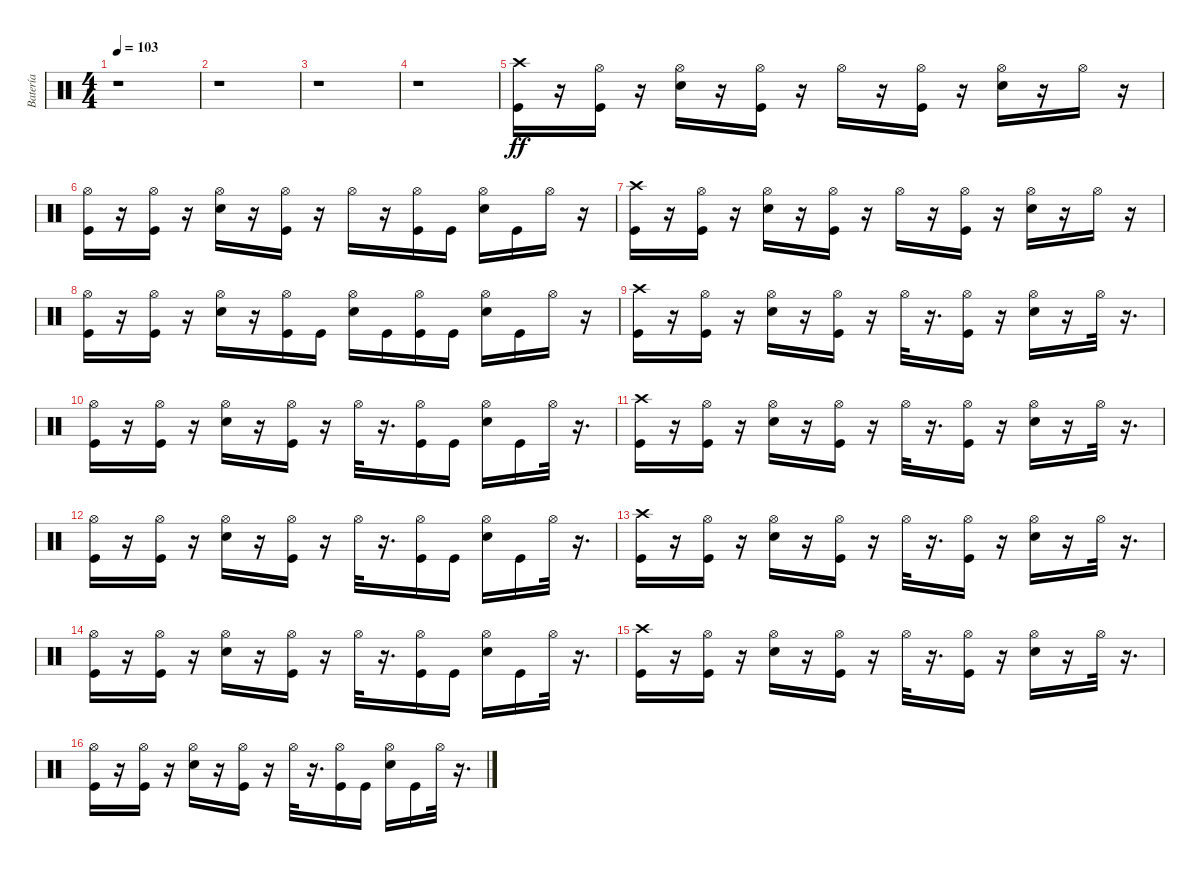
\track ("Batería" "Batería") {instrument percussion}
\staff {score}
\articulation defaults
\ts (4 4)
\tempo 103
\clef neutral
\ks c
r.1{dy ff} |
r.1 |
r.1 |
r.1 |
("Crash high (hit)" "Kick (hit)").16 r.16 ("Kick (hit)" "Hi-Hat (open)").16 r.16 ("Snare (hit) 2" "Hi-Hat (open)").16 r.16 ("Kick (hit)" "Hi-Hat (open)").16 r.16 "Hi-Hat (open)".16 r.16 ("Kick (hit)" "Hi-Hat (open)").16 r.16 ("Hi-Hat (open)" "Snare (hit) 2").16 r.16 "Hi-Hat (open)".16 r.16 |
("Kick (hit)" "Hi-Hat (open)").16 r.16 ("Kick (hit)" "Hi-Hat (open)").16 r.16 ("Snare (hit) 2" "Hi-Hat (open)").16 r.16 ("Kick (hit)" "Hi-Hat (open)").16 r.16 "Hi-Hat (open)".16 r.16 ("Kick (hit)" "Hi-Hat (open)").16 "Kick (hit)".16 ("Hi-Hat (open)" "Snare (hit) 2").16 "Kick (hit)".16 "Hi-Hat (open)".16 r.16 |
("Kick (hit)" "Crash high (hit)").16 r.16 ("Kick (hit)" "Hi-Hat (open)").16 r.16 ("Snare (hit) 2" "Hi-Hat (open)").16 r.16 ("Kick (hit)" "Hi-Hat (open)").16 r.16 "Hi-Hat (open)".16 r.16 ("Kick (hit)" "Hi-Hat (open)").16 r.16 ("Hi-Hat (open)" "Snare (hit) 2").16 r.16 "Hi-Hat (open)".16 r.16 |
("Kick (hit)" "Hi-Hat (open)").16 r.16 ("Kick (hit)" "Hi-Hat (open)").16 r.16 ("Snare (hit) 2" "Hi-Hat (open)").16 r.16 ("Kick (hit)" "Hi-Hat (open)").16 "Kick (hit)".16 ("Hi-Hat (open)" "Snare (hit) 2").16 "Kick (hit)".16 ("Kick (hit)" "Hi-Hat (open)").16 "Kick (hit)".16 ("Hi-Hat (open)" "Snare (hit) 2").16 "Kick (hit)".16 "Hi-Hat (open)".16 r.16 |
("Crash high (hit)" "Kick (hit)").16 r.16 ("Kick (hit)" "Hi-Hat (open)").16 r.16 ("Snare (hit) 2" "Hi-Hat (open)").16 r.16 ("Kick (hit)" "Hi-Hat (open)").16 r.16 "Hi-Hat (open)".32 r.16{d} ("Kick (hit)" "Hi-Hat (open)").16 r.16 ("Snare (hit) 2" "Hi-Hat (open)").16 r.16 "Hi-Hat (open)".32 r.16{d} |
("Kick (hit)" "Hi-Hat (open)").16 r.16 ("Kick (hit)" "Hi-Hat (open)").16 r.16 ("Snare (hit) 2" "Hi-Hat (open)").16 r.16 ("Kick (hit)" "Hi-Hat (open)").16 r.16 "Hi-Hat (open)".32 r.16{d} ("Kick (hit)" "Hi-Hat (open)").16 "Kick (hit)".16 ("Snare (hit) 2" "Hi-Hat (open)").16 "Kick (hit)".16 "Hi-Hat (open)".32 r.16{d} |
("Kick (hit)" "Crash high (hit)").16 r.16 ("Kick (hit)" "Hi-Hat (open)").16 r.16 ("Snare (hit) 2" "Hi-Hat (open)").16 r.16 ("Kick (hit)" "Hi-Hat (open)").16 r.16 "Hi-Hat (open)".32 r.16{d} ("Kick (hit)" "Hi-Hat (open)").16 r.16 ("Snare (hit) 2" "Hi-Hat (open)").16 r.16 "Hi-Hat (open)".32 r.16{d} |
("Kick (hit)" "Hi-Hat (open)").16 r.16 ("Kick (hit)" "Hi-Hat (open)").16 r.16 ("Snare (hit) 2" "Hi-Hat (open)").16 r.16 ("Kick (hit)" "Hi-Hat (open)").16 r.16 "Hi-Hat (open)".32 r.16{d} ("Kick (hit)" "Hi-Hat (open)").16 "Kick (hit)".16 ("Snare (hit) 2" "Hi-Hat (open)").16 "Kick (hit)".16 "Hi-Hat (open)".32 r.16{d} |
("Crash high (hit)" "Kick (hit)").16 r.16 ("Kick (hit)" "Hi-Hat (open)").16 r.16 ("Snare (hit) 2" "Hi-Hat (open)").16 r.16 ("Kick (hit)" "Hi-Hat (open)").16 r.16 "Hi-Hat (open)".32 r.16{d} ("Kick (hit)" "Hi-Hat (open)").16 r.16 ("Snare (hit) 2" "Hi-Hat (open)").16 r.16 "Hi-Hat (open)".32 r.16{d} |
("Kick (hit)" "Hi-Hat (open)").16 r.16 ("Kick (hit)" "Hi-Hat (open)").16 r.16 ("Snare (hit) 2" "Hi-Hat (open)").16 r.16 ("Kick (hit)" "Hi-Hat (open)").16 r.16 "Hi-Hat (open)".32 r.16{d} ("Kick (hit)" "Hi-Hat (open)").16 "Kick (hit)".16 ("Snare (hit) 2" "Hi-Hat (open)").16 "Kick (hit)".16 "Hi-Hat (open)".32 r.16{d} |
("Kick (hit)" "Crash high (hit)").16 r.16 ("Kick (hit)" "Hi-Hat (open)").16 r.16 ("Snare (hit) 2" "Hi-Hat (open)").16 r.16 ("Kick (hit)" "Hi-Hat (open)").16 r.16 "Hi-Hat (open)".32 r.16{d} ("Kick (hit)" "Hi-Hat (open)").16 r.16 ("Snare (hit) 2" "Hi-Hat (open)").16 r.16 "Hi-Hat (open)".32 r.16{d} |
("Kick (hit)" "Hi-Hat (open)").16 r.16 ("Kick (hit)" "Hi-Hat (open)").16 r.16 ("Snare (hit) 2" "Hi-Hat (open)").16 r.16 ("Kick (hit)" "Hi-Hat (open)").16 r.16 "Hi-Hat (open)".32 r.16{d} ("Kick (hit)" "Hi-Hat (open)").16 "Kick (hit)".16 ("Snare (hit) 2" "Hi-Hat (open)").16 "Kick (hit)".16 "Hi-Hat (open)".32 r.16{d}
